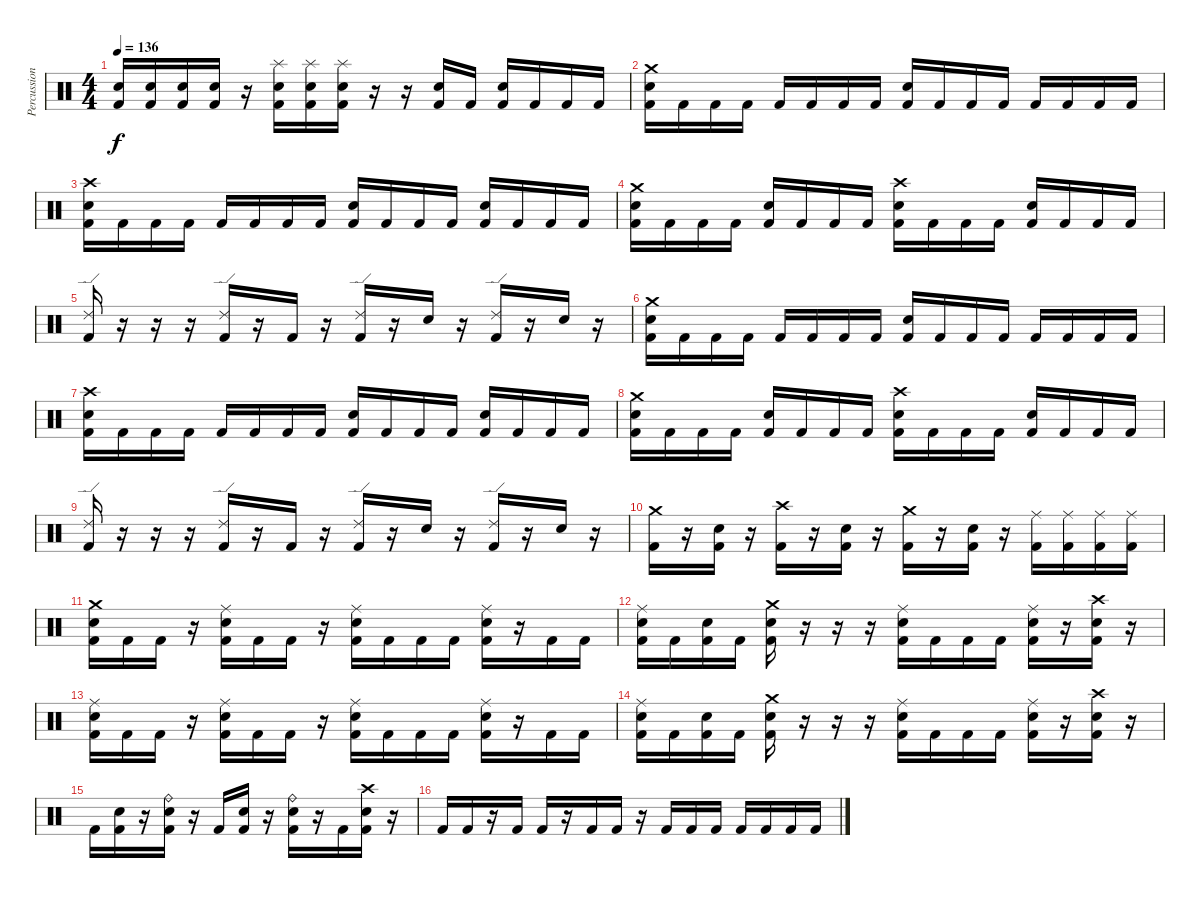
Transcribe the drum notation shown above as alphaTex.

\track ("Percussion" "Percussion") {instrument percussion}
\staff {score}
\articulation defaults
\ts (4 4)
\tempo 136
\clef neutral
\ks c
("Electric Snare (hit)" "Kick (hit) 2").16{dy f} ("Electric Snare (hit)" "Kick (hit) 2").16 ("Electric Snare (hit)" "Kick (hit) 2").16 ("Electric Snare (hit)" "Kick (hit) 2").16 r.16 ("Splash (hit)" "Electric Snare (hit)" "Kick (hit) 2").16 ("Splash (hit)" "Electric Snare (hit)" "Kick (hit) 2").16 ("Splash (hit)" "Electric Snare (hit)" "Kick (hit) 2").16 r.16 r.16 ("Electric Snare (hit)" "Kick (hit) 2").16 "Kick (hit) 2".16 ("Electric Snare (hit)" "Kick (hit) 2").16 "Kick (hit) 2".16 "Kick (hit) 2".16 "Kick (hit) 2".16 |
("Crash medium (hit)" "Electric Snare (hit)" "Kick (hit) 2").16 "Kick (hit) 2".16 "Kick (hit) 2".16 "Kick (hit) 2".16 "Kick (hit) 2".16 "Kick (hit) 2".16 "Kick (hit) 2".16 "Kick (hit) 2".16 ("Electric Snare (hit)" "Kick (hit) 2").16 "Kick (hit) 2".16 "Kick (hit) 2".16 "Kick (hit) 2".16 "Kick (hit) 2".16 "Kick (hit) 2".16 "Kick (hit) 2".16 "Kick (hit) 2".16 |
("Crash high (hit)" "Electric Snare (hit)" "Kick (hit) 2").16 "Kick (hit) 2".16 "Kick (hit) 2".16 "Kick (hit) 2".16 "Kick (hit) 2".16 "Kick (hit) 2".16 "Kick (hit) 2".16 "Kick (hit) 2".16 ("Electric Snare (hit)" "Kick (hit) 2").16 "Kick (hit) 2".16 "Kick (hit) 2".16 "Kick (hit) 2".16 ("Electric Snare (hit)" "Kick (hit) 2").16 "Kick (hit) 2".16 "Kick (hit) 2".16 "Kick (hit) 2".16 |
("Crash medium (hit)" "Electric Snare (hit)" "Kick (hit) 2").16 "Kick (hit) 2".16 "Kick (hit) 2".16 "Kick (hit) 2".16 ("Electric Snare (hit)" "Kick (hit) 2").16 "Kick (hit) 2".16 "Kick (hit) 2".16 "Kick (hit) 2".16 ("Crash high (hit)" "Electric Snare (hit)" "Kick (hit) 2").16 "Kick (hit) 2".16 "Kick (hit) 2".16 "Kick (hit) 2".16 ("Electric Snare (hit)" "Kick (hit) 2").16 "Kick (hit) 2".16 "Kick (hit) 2".16 "Kick (hit) 2".16 |
("Ride (edge) 2" "Kick (hit) 2").16 r.16 r.16 r.16 ("Ride (edge) 2" "Kick (hit) 2").16 r.16 "Kick (hit) 2".16 r.16 ("Ride (edge) 2" "Kick (hit) 2").16 r.16 "Electric Snare (hit)".16 r.16 ("Ride (edge) 2" "Kick (hit) 2").16 r.16 "Electric Snare (hit)".16 r.16 |
("Crash medium (hit)" "Electric Snare (hit)" "Kick (hit) 2").16 "Kick (hit) 2".16 "Kick (hit) 2".16 "Kick (hit) 2".16 "Kick (hit) 2".16 "Kick (hit) 2".16 "Kick (hit) 2".16 "Kick (hit) 2".16 ("Electric Snare (hit)" "Kick (hit) 2").16 "Kick (hit) 2".16 "Kick (hit) 2".16 "Kick (hit) 2".16 "Kick (hit) 2".16 "Kick (hit) 2".16 "Kick (hit) 2".16 "Kick (hit) 2".16 |
("Crash high (hit)" "Electric Snare (hit)" "Kick (hit) 2").16 "Kick (hit) 2".16 "Kick (hit) 2".16 "Kick (hit) 2".16 "Kick (hit) 2".16 "Kick (hit) 2".16 "Kick (hit) 2".16 "Kick (hit) 2".16 ("Electric Snare (hit)" "Kick (hit) 2").16 "Kick (hit) 2".16 "Kick (hit) 2".16 "Kick (hit) 2".16 ("Electric Snare (hit)" "Kick (hit) 2").16 "Kick (hit) 2".16 "Kick (hit) 2".16 "Kick (hit) 2".16 |
("Crash medium (hit)" "Electric Snare (hit)" "Kick (hit) 2").16 "Kick (hit) 2".16 "Kick (hit) 2".16 "Kick (hit) 2".16 ("Electric Snare (hit)" "Kick (hit) 2").16 "Kick (hit) 2".16 "Kick (hit) 2".16 "Kick (hit) 2".16 ("Crash high (hit)" "Electric Snare (hit)" "Kick (hit) 2").16 "Kick (hit) 2".16 "Kick (hit) 2".16 "Kick (hit) 2".16 ("Electric Snare (hit)" "Kick (hit) 2").16 "Kick (hit) 2".16 "Kick (hit) 2".16 "Kick (hit) 2".16 |
("Ride (edge) 2" "Kick (hit) 2").16 r.16 r.16 r.16 ("Ride (edge) 2" "Kick (hit) 2").16 r.16 "Kick (hit) 2".16 r.16 ("Ride (edge) 2" "Kick (hit) 2").16 r.16 "Electric Snare (hit)".16 r.16 ("Ride (edge) 2" "Kick (hit) 2").16 r.16 "Electric Snare (hit)".16 r.16 |
("Crash medium (hit)" "Kick (hit) 2").16 r.16 ("Electric Snare (hit)" "Kick (hit) 2").16 r.16 ("Crash high (hit)" "Kick (hit) 2").16 r.16 ("Electric Snare (hit)" "Kick (hit) 2").16 r.16 ("Crash medium (hit)" "Kick (hit) 2").16 r.16 ("Electric Snare (hit)" "Kick (hit) 2").16 r.16 ("Ride (middle)" "Kick (hit) 2").16 ("Ride (middle)" "Kick (hit) 2").16 ("Ride (middle)" "Kick (hit) 2").16 ("Ride (middle)" "Kick (hit) 2").16 |
("Crash medium (hit)" "Electric Snare (hit)" "Kick (hit) 2").16 "Kick (hit) 2".16 "Kick (hit) 2".16 r.16 ("Ride (middle)" "Electric Snare (hit)" "Kick (hit) 2").16 "Kick (hit) 2".16 "Kick (hit) 2".16 r.16 ("Ride (middle)" "Electric Snare (hit)" "Kick (hit) 2").16 "Kick (hit) 2".16 "Kick (hit) 2".16 "Kick (hit) 2".16 ("Ride (middle)" "Electric Snare (hit)" "Kick (hit) 2").16 r.16 "Kick (hit) 2".16 "Kick (hit) 2".16 |
("Ride (middle)" "Electric Snare (hit)" "Kick (hit) 2").16 "Kick (hit) 2".16 ("Electric Snare (hit)" "Kick (hit) 2").16 "Kick (hit) 2".16 ("Crash medium (hit)" "Electric Snare (hit)" "Kick (hit) 2").16 r.16 r.16 r.16 ("Ride (middle)" "Electric Snare (hit)" "Kick (hit) 2").16 "Kick (hit) 2".16 "Kick (hit) 2".16 "Kick (hit) 2".16 ("Ride (middle)" "Electric Snare (hit)" "Kick (hit) 2").16 r.16 ("Crash high (hit)" "Electric Snare (hit)" "Kick (hit) 2").16 r.16 |
("Ride (middle)" "Electric Snare (hit)" "Kick (hit) 2").16 "Kick (hit) 2".16 "Kick (hit) 2".16 r.16 ("Ride (middle)" "Electric Snare (hit)" "Kick (hit) 2").16 "Kick (hit) 2".16 "Kick (hit) 2".16 r.16 ("Ride (middle)" "Electric Snare (hit)" "Kick (hit) 2").16 "Kick (hit) 2".16 "Kick (hit) 2".16 "Kick (hit) 2".16 ("Ride (middle)" "Electric Snare (hit)" "Kick (hit) 2").16 r.16 "Kick (hit) 2".16 "Kick (hit) 2".16 |
("Ride (middle)" "Electric Snare (hit)" "Kick (hit) 2").16 "Kick (hit) 2".16 ("Electric Snare (hit)" "Kick (hit) 2").16 "Kick (hit) 2".16 ("Crash medium (hit)" "Electric Snare (hit)" "Kick (hit) 2").16 r.16 r.16 r.16 ("Ride (middle)" "Electric Snare (hit)" "Kick (hit) 2").16 "Kick (hit) 2".16 "Kick (hit) 2".16 "Kick (hit) 2".16 ("Ride (middle)" "Electric Snare (hit)" "Kick (hit) 2").16 r.16 ("Crash high (hit)" "Electric Snare (hit)" "Kick (hit) 2").16 r.16 |
"Kick (hit) 2".16 ("Electric Snare (hit)" "Kick (hit) 2").16 r.16 ("Ride (bell)" "Electric Snare (hit)" "Kick (hit) 2").16 r.16 "Kick (hit) 2".16 ("Electric Snare (hit)" "Kick (hit) 2").16 r.16 ("Ride (bell)" "Electric Snare (hit)" "Kick (hit) 2").16 r.16 "Kick (hit) 2".16 ("Crash high (hit)" "Electric Snare (hit)" "Kick (hit) 2").16 r.16 |
"Kick (hit) 2".16 "Kick (hit) 2".16 r.16 "Kick (hit) 2".16 "Kick (hit) 2".16 r.16 "Kick (hit) 2".16 "Kick (hit) 2".16 r.16 "Kick (hit) 2".16 "Kick (hit) 2".16 "Kick (hit) 2".16 "Kick (hit) 2".16 "Kick (hit) 2".16 "Kick (hit) 2".16 "Kick (hit) 2".16
